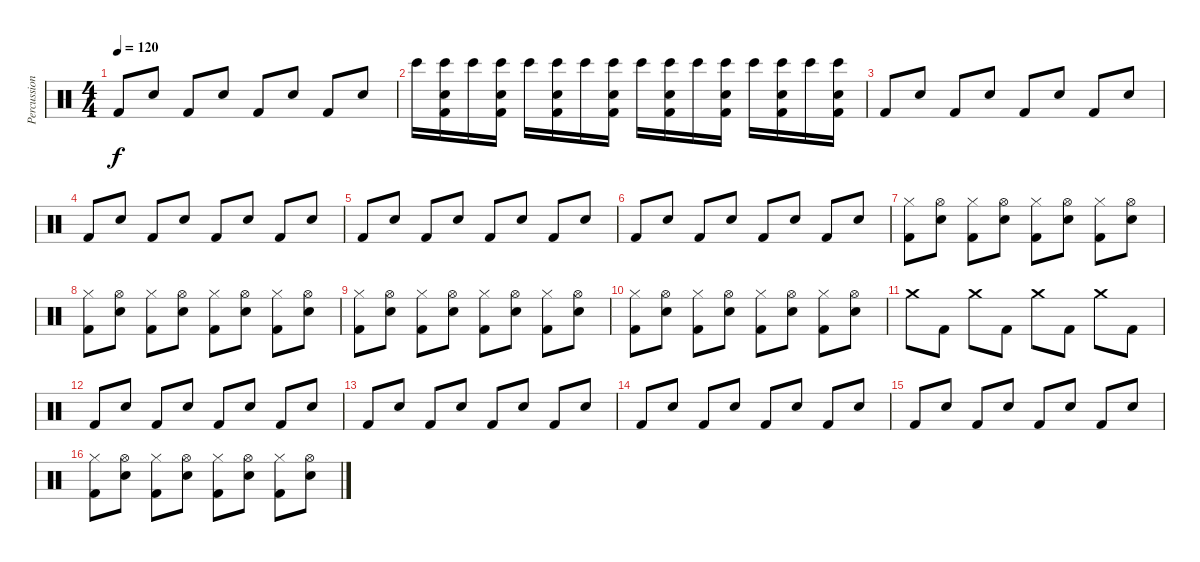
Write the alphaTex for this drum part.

\track ("Percussion" "Percussion") {instrument percussion}
\staff {score}
\articulation defaults
\ts (4 4)
\tempo 120
\clef neutral
\ks c "Kick (hit) 2".8{dy f} "Snare (hit) 2".8 "Kick (hit) 2".8 "Snare (hit) 2".8 "Kick (hit) 2".8 "Snare (hit) 2".8 "Kick (hit) 2".8 "Snare (hit) 2".8
|
"Bongo High (hit)".16 ("Snare (hit) 2" "Kick (hit) 2" "Bongo High (hit)").16 "Bongo High (hit)".16 ("Snare (hit) 2" "Kick (hit) 2" "Bongo High (hit)").16 "Bongo High (hit)".16 ("Snare (hit) 2" "Kick (hit) 2" "Bongo High (hit)").16 "Bongo High (hit)".16 ("Snare (hit) 2" "Kick (hit) 2" "Bongo High (hit)").16 "Bongo High (hit)".16 ("Snare (hit) 2" "Kick (hit) 2" "Bongo High (hit)").16 "Bongo High (hit)".16 ("Snare (hit) 2" "Kick (hit) 2" "Bongo High (hit)").16 "Bongo High (hit)".16 ("Snare (hit) 2" "Kick (hit) 2" "Bongo High (hit)").16 "Bongo High (hit)".16 ("Snare (hit) 2" "Kick (hit) 2" "Bongo High (hit)").16 |
"Kick (hit) 2".8 "Snare (hit) 2".8 "Kick (hit) 2".8 "Snare (hit) 2".8 "Kick (hit) 2".8 "Snare (hit) 2".8 "Kick (hit) 2".8 "Snare (hit) 2".8 |
"Kick (hit) 2".8 "Snare (hit) 2".8 "Kick (hit) 2".8 "Snare (hit) 2".8 "Kick (hit) 2".8 "Snare (hit) 2".8 "Kick (hit) 2".8 "Snare (hit) 2".8 |
"Kick (hit) 2".8 "Snare (hit) 2".8 "Kick (hit) 2".8 "Snare (hit) 2".8 "Kick (hit) 2".8 "Snare (hit) 2".8 "Kick (hit) 2".8 "Snare (hit) 2".8 |
"Kick (hit) 2".8 "Snare (hit) 2".8 "Kick (hit) 2".8 "Snare (hit) 2".8 "Kick (hit) 2".8 "Snare (hit) 2".8 "Kick (hit) 2".8 "Snare (hit) 2".8 |
("Hi-Hat (closed)" "Kick (hit) 2").8 ("Hi-Hat (open)" "Snare (hit) 2").8 ("Hi-Hat (closed)" "Kick (hit) 2").8 ("Hi-Hat (open)" "Snare (hit) 2").8 ("Hi-Hat (closed)" "Kick (hit) 2").8 ("Hi-Hat (open)" "Snare (hit) 2").8 ("Hi-Hat (closed)" "Kick (hit) 2").8 ("Hi-Hat (open)" "Snare (hit) 2").8 |
("Hi-Hat (closed)" "Kick (hit) 2").8 ("Hi-Hat (open)" "Snare (hit) 2").8 ("Hi-Hat (closed)" "Kick (hit) 2").8 ("Hi-Hat (open)" "Snare (hit) 2").8 ("Hi-Hat (closed)" "Kick (hit) 2").8 ("Hi-Hat (open)" "Snare (hit) 2").8 ("Hi-Hat (closed)" "Kick (hit) 2").8 ("Hi-Hat (open)" "Snare (hit) 2").8 |
("Hi-Hat (closed)" "Kick (hit) 2").8 ("Hi-Hat (open)" "Snare (hit) 2").8 ("Hi-Hat (closed)" "Kick (hit) 2").8 ("Hi-Hat (open)" "Snare (hit) 2").8 ("Hi-Hat (closed)" "Kick (hit) 2").8 ("Hi-Hat (open)" "Snare (hit) 2").8 ("Hi-Hat (closed)" "Kick (hit) 2").8 ("Hi-Hat (open)" "Snare (hit) 2").8 |
("Hi-Hat (closed)" "Kick (hit) 2").8 ("Hi-Hat (open)" "Snare (hit) 2").8 ("Hi-Hat (closed)" "Kick (hit) 2").8 ("Hi-Hat (open)" "Snare (hit) 2").8 ("Hi-Hat (closed)" "Kick (hit) 2").8 ("Hi-Hat (open)" "Snare (hit) 2").8 ("Hi-Hat (closed)" "Kick (hit) 2").8 ("Hi-Hat (open)" "Snare (hit) 2").8 |
"Crash medium (hit)".8 "Kick (hit) 2".8 "Crash medium (hit)".8 "Kick (hit) 2".8 "Crash medium (hit)".8 "Kick (hit) 2".8 "Crash medium (hit)".8 "Kick (hit) 2".8 |
"Kick (hit) 2".8 "Snare (hit) 2".8 "Kick (hit) 2".8 "Snare (hit) 2".8 "Kick (hit) 2".8 "Snare (hit) 2".8 "Kick (hit) 2".8 "Snare (hit) 2".8 |
"Kick (hit) 2".8 "Snare (hit) 2".8 "Kick (hit) 2".8 "Snare (hit) 2".8 "Kick (hit) 2".8 "Snare (hit) 2".8 "Kick (hit) 2".8 "Snare (hit) 2".8 |
"Kick (hit) 2".8 "Snare (hit) 2".8 "Kick (hit) 2".8 "Snare (hit) 2".8 "Kick (hit) 2".8 "Snare (hit) 2".8 "Kick (hit) 2".8 "Snare (hit) 2".8 |
"Kick (hit) 2".8 "Snare (hit) 2".8 "Kick (hit) 2".8 "Snare (hit) 2".8 "Kick (hit) 2".8 "Snare (hit) 2".8 "Kick (hit) 2".8 "Snare (hit) 2".8 |
("Hi-Hat (closed)" "Kick (hit) 2").8 ("Hi-Hat (open)" "Snare (hit) 2").8 ("Hi-Hat (closed)" "Kick (hit) 2").8 ("Hi-Hat (open)" "Snare (hit) 2").8 ("Hi-Hat (closed)" "Kick (hit) 2").8 ("Hi-Hat (open)" "Snare (hit) 2").8 ("Hi-Hat (closed)" "Kick (hit) 2").8 ("Hi-Hat (open)" "Snare (hit) 2").8
